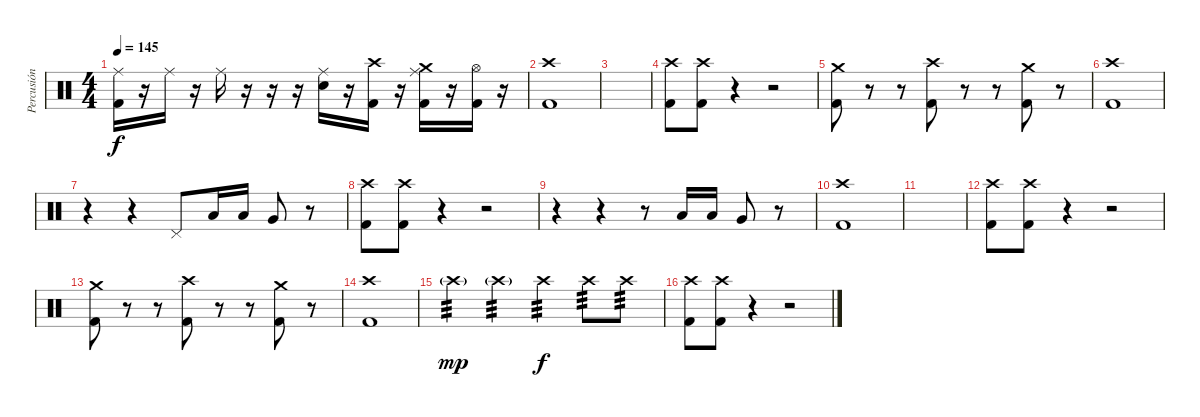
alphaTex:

\track ("Percusión" "Percusión") {instrument percussion}
\staff {score}
\articulation defaults
\ts (4 4)
\tempo 145
\clef neutral
\ks c
("Kick (hit) 2" "Ride (middle)").16{dy f} r.16 "Ride (middle)".16 r.16 "Ride (middle)".16 r.16 r.16 r.16 ("Electric Snare (hit)" "Ride (middle)").16 r.16 ("Kick (hit) 2" "Crash high (hit)").16 r.16 ("Kick (hit) 2" "Ride (middle)" "Crash medium (hit)").16 r.16 ("Kick (hit) 2" "Hi-Hat (open)").16 r.16 |
("Kick (hit) 2" "Crash high (hit)").1 |
|
("Kick (hit) 2" "Crash high (hit)").8 ("Kick (hit) 2" "Crash high (hit)").8 r.4 r.2 |
("Kick (hit) 2" "Crash medium (hit)").8 r.8 r.8 ("Kick (hit) 2" "Crash high (hit)").8 r.8 r.8 ("Kick (hit) 2" "Crash medium (hit)").8 r.8 |
("Kick (hit) 2" "Crash high (hit)").1 |
r.4 r.4 "Pedal Hi-Hat (hit)".8 "Low Tom (hit)".16 "Low Tom (hit)".16 "Very Low Tom (hit)".8 r.8 |
("Kick (hit) 2" "Crash high (hit)").8 ("Kick (hit) 2" "Crash high (hit)").8 r.4 r.2 |
r.4 r.4 r.8 "Low Tom (hit)".16 "Low Tom (hit)".16 "Very Low Tom (hit)".8 r.8 |
("Kick (hit) 2" "Crash high (hit)").1 |
|
("Kick (hit) 2" "Crash high (hit)").8 ("Kick (hit) 2" "Crash high (hit)").8 r.4 r.2 |
("Kick (hit) 2" "Crash medium (hit)").8 r.8 r.8 ("Kick (hit) 2" "Crash high (hit)").8 r.8 r.8 ("Kick (hit) 2" "Crash medium (hit)").8 r.8 |
("Kick (hit) 2" "Crash high (hit)").1 |
"Crash high (hit)"{g}.4{tp 3 dy mp} "Crash high (hit)"{g}.4{tp 3} "Crash high (hit)".4{tp 3 dy f} "Crash high (hit)".8{tp 3} "Crash high (hit)".8{tp 3} |
("Kick (hit) 2" "Crash high (hit)").8 ("Kick (hit) 2" "Crash high (hit)").8 r.4 r.2
